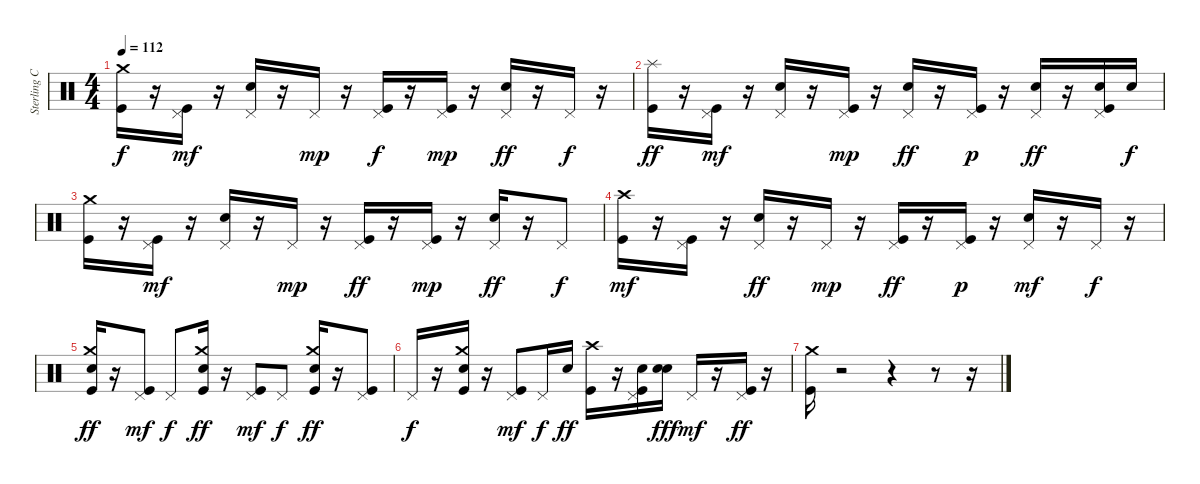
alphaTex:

\track ("Sterling Campbell" "Sterling C") {instrument percussion}
\staff {score}
\articulation defaults
\ts (4 4)
\tempo 112
\clef neutral
\ks c
("Kick (hit)" "Crash medium (hit)").16{dy f} r.16 ("Kick (hit)" "Pedal Hi-Hat (hit)").16{dy mf} r.16 ("Electric Snare (hit)" "Pedal Hi-Hat (hit)").16 r.16 "Pedal Hi-Hat (hit)".16{dy mp} r.16 ("Kick (hit)" "Pedal Hi-Hat (hit)").16{dy f} r.16 ("Kick (hit)" "Pedal Hi-Hat (hit)").16{dy mp} r.16 ("Electric Snare (hit)" "Pedal Hi-Hat (hit)").16{dy ff} r.16 "Pedal Hi-Hat (hit)".16{dy f} r.16 |
("Kick (hit)" "Splash (hit)").16{dy ff} r.16 ("Kick (hit)" "Pedal Hi-Hat (hit)").16{dy mf} r.16 ("Electric Snare (hit)" "Pedal Hi-Hat (hit)").16 r.16 ("Kick (hit)" "Pedal Hi-Hat (hit)").16{dy mp} r.16 ("Electric Snare (hit)" "Pedal Hi-Hat (hit)").16{dy ff} r.16 ("Kick (hit)" "Pedal Hi-Hat (hit)").16{dy p} r.16 ("Electric Snare (hit)" "Pedal Hi-Hat (hit)").16{dy ff} r.16 ("Electric Snare (hit)" "Kick (hit)" "Pedal Hi-Hat (hit)").16 "Electric Snare (hit)".16{dy f} |
("Kick (hit)" "Crash medium (hit)").16 r.16 ("Kick (hit)" "Pedal Hi-Hat (hit)").16{dy mf} r.16 ("Electric Snare (hit)" "Pedal Hi-Hat (hit)").16 r.16 "Pedal Hi-Hat (hit)".16{dy mp} r.16 ("Kick (hit)" "Pedal Hi-Hat (hit)").16{dy ff} r.16 ("Kick (hit)" "Pedal Hi-Hat (hit)").16{dy mp} r.16 ("Electric Snare (hit)" "Pedal Hi-Hat (hit)").16{dy ff} r.16 "Pedal Hi-Hat (hit)".8{dy f} |
("Kick (hit)" "Crash high (hit)").16{dy mf} r.16 ("Kick (hit)" "Pedal Hi-Hat (hit)").16 r.16 ("Electric Snare (hit)" "Pedal Hi-Hat (hit)").16{dy ff} r.16 "Pedal Hi-Hat (hit)".16{dy mp} r.16 ("Kick (hit)" "Pedal Hi-Hat (hit)").16{dy ff} r.16 ("Kick (hit)" "Pedal Hi-Hat (hit)").16{dy p} r.16 ("Electric Snare (hit)" "Pedal Hi-Hat (hit)").16{dy mf} r.16 "Pedal Hi-Hat (hit)".16{dy f} r.16 |
("Electric Snare (hit)" "Kick (hit)" "Crash medium (hit)").16{dy ff} r.16 ("Kick (hit)" "Pedal Hi-Hat (hit)").8{dy mf} "Pedal Hi-Hat (hit)".8{dy f} ("Electric Snare (hit)" "Kick (hit)" "Crash medium (hit)").16{dy ff} r.16 ("Kick (hit)" "Pedal Hi-Hat (hit)").8{dy mf} "Pedal Hi-Hat (hit)".8{dy f} ("Electric Snare (hit)" "Kick (hit)" "Crash medium (hit)").16{dy ff} r.16 ("Kick (hit)" "Pedal Hi-Hat (hit)").8 |
"Pedal Hi-Hat (hit)".16{dy f} r.16 ("Electric Snare (hit)" "Kick (hit)" "Crash medium (hit)").16 r.16 ("Kick (hit)" "Pedal Hi-Hat (hit)").8{dy mf} "Pedal Hi-Hat (hit)".16{dy f} "Electric Snare (hit)".16{dy ff} ("Kick (hit)" "Crash high (hit)").16 r.16 ("Electric Snare (hit)" "Kick (hit)" "Pedal Hi-Hat (hit)").16 ("Electric Snare (hit)" "Electric Snare (hit)").16{dy fff} "Pedal Hi-Hat (hit)".16{dy mf} r.16 ("Kick (hit)" "Pedal Hi-Hat (hit)").16{dy ff} r.16 |
("Crash medium (hit)" "Kick (hit)").16 r.2 r.4 r.8 r.16
